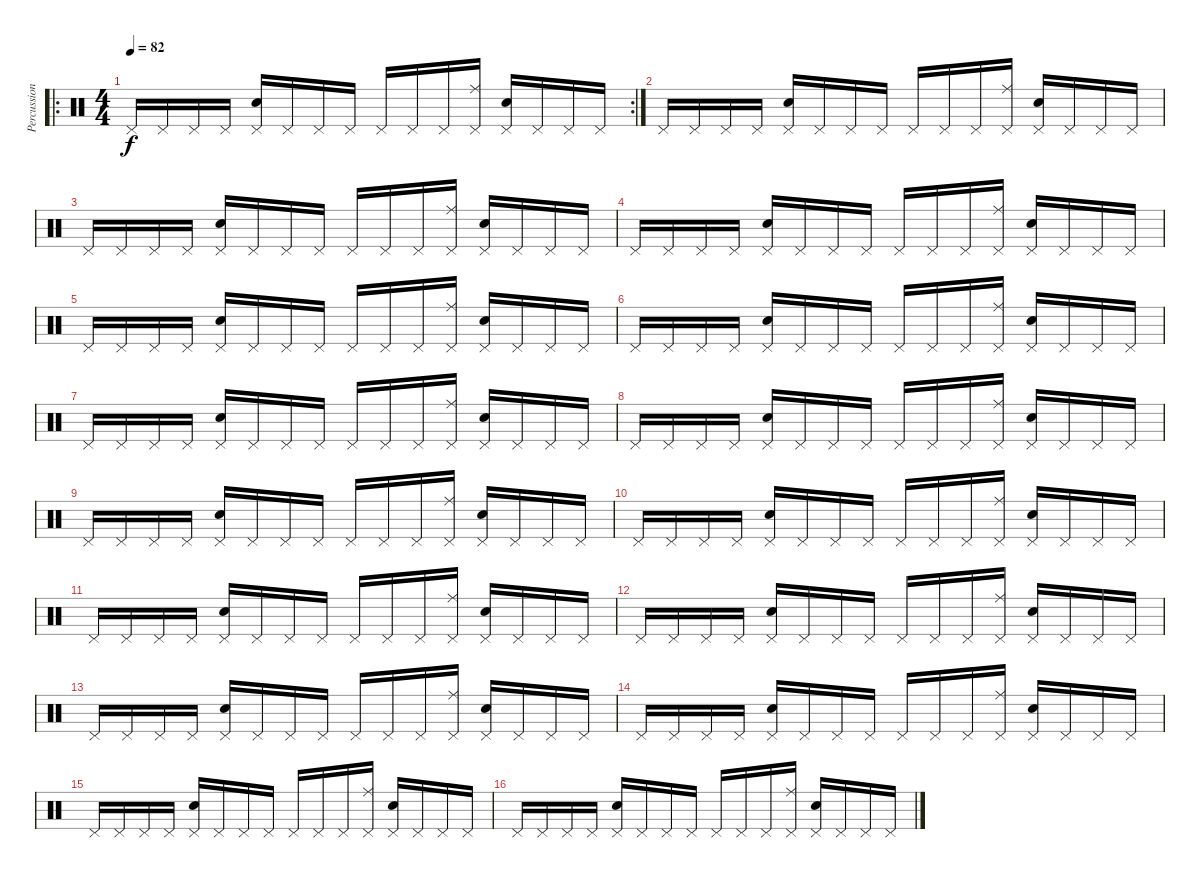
\track ("Percussions" "Percussion") {instrument percussion}
\staff {score}
\articulation defaults
\ro
\rc 2
\ts (4 4)
\tempo 82
\clef neutral
\ks c "Pedal Hi-Hat (hit)".16{dy f} "Pedal Hi-Hat (hit)".16 "Pedal Hi-Hat (hit)".16 "Pedal Hi-Hat (hit)".16
("Pedal Hi-Hat (hit)" "Hand Clap (hit)").16 "Pedal Hi-Hat (hit)".16 "Pedal Hi-Hat (hit)".16 "Pedal Hi-Hat (hit)".16 "Pedal Hi-Hat (hit)".16 "Pedal Hi-Hat (hit)".16 "Pedal Hi-Hat (hit)".16 ("Pedal Hi-Hat (hit)" "Ride (middle)").16 ("Pedal Hi-Hat (hit)" "Hand Clap (hit)").16 "Pedal Hi-Hat (hit)".16 "Pedal Hi-Hat (hit)".16 "Pedal Hi-Hat (hit)".16 |
"Pedal Hi-Hat (hit)".16 "Pedal Hi-Hat (hit)".16 "Pedal Hi-Hat (hit)".16 "Pedal Hi-Hat (hit)".16 ("Pedal Hi-Hat (hit)" "Hand Clap (hit)").16 "Pedal Hi-Hat (hit)".16 "Pedal Hi-Hat (hit)".16 "Pedal Hi-Hat (hit)".16 "Pedal Hi-Hat (hit)".16 "Pedal Hi-Hat (hit)".16 "Pedal Hi-Hat (hit)".16 ("Pedal Hi-Hat (hit)" "Ride (middle)").16 ("Pedal Hi-Hat (hit)" "Hand Clap (hit)").16 "Pedal Hi-Hat (hit)".16 "Pedal Hi-Hat (hit)".16 "Pedal Hi-Hat (hit)".16 |
"Pedal Hi-Hat (hit)".16 "Pedal Hi-Hat (hit)".16 "Pedal Hi-Hat (hit)".16 "Pedal Hi-Hat (hit)".16 ("Pedal Hi-Hat (hit)" "Hand Clap (hit)").16 "Pedal Hi-Hat (hit)".16 "Pedal Hi-Hat (hit)".16 "Pedal Hi-Hat (hit)".16 "Pedal Hi-Hat (hit)".16 "Pedal Hi-Hat (hit)".16 "Pedal Hi-Hat (hit)".16 ("Pedal Hi-Hat (hit)" "Ride (middle)").16 ("Pedal Hi-Hat (hit)" "Hand Clap (hit)").16 "Pedal Hi-Hat (hit)".16 "Pedal Hi-Hat (hit)".16 "Pedal Hi-Hat (hit)".16 |
"Pedal Hi-Hat (hit)".16 "Pedal Hi-Hat (hit)".16 "Pedal Hi-Hat (hit)".16 "Pedal Hi-Hat (hit)".16 ("Pedal Hi-Hat (hit)" "Hand Clap (hit)").16 "Pedal Hi-Hat (hit)".16 "Pedal Hi-Hat (hit)".16 "Pedal Hi-Hat (hit)".16 "Pedal Hi-Hat (hit)".16 "Pedal Hi-Hat (hit)".16 "Pedal Hi-Hat (hit)".16 ("Pedal Hi-Hat (hit)" "Ride (middle)").16 ("Pedal Hi-Hat (hit)" "Hand Clap (hit)").16 "Pedal Hi-Hat (hit)".16 "Pedal Hi-Hat (hit)".16 "Pedal Hi-Hat (hit)".16 |
"Pedal Hi-Hat (hit)".16 "Pedal Hi-Hat (hit)".16 "Pedal Hi-Hat (hit)".16 "Pedal Hi-Hat (hit)".16 ("Pedal Hi-Hat (hit)" "Hand Clap (hit)").16 "Pedal Hi-Hat (hit)".16 "Pedal Hi-Hat (hit)".16 "Pedal Hi-Hat (hit)".16 "Pedal Hi-Hat (hit)".16 "Pedal Hi-Hat (hit)".16 "Pedal Hi-Hat (hit)".16 ("Pedal Hi-Hat (hit)" "Ride (middle)").16 ("Pedal Hi-Hat (hit)" "Hand Clap (hit)").16 "Pedal Hi-Hat (hit)".16 "Pedal Hi-Hat (hit)".16 "Pedal Hi-Hat (hit)".16 |
"Pedal Hi-Hat (hit)".16 "Pedal Hi-Hat (hit)".16 "Pedal Hi-Hat (hit)".16 "Pedal Hi-Hat (hit)".16 ("Pedal Hi-Hat (hit)" "Hand Clap (hit)").16 "Pedal Hi-Hat (hit)".16 "Pedal Hi-Hat (hit)".16 "Pedal Hi-Hat (hit)".16 "Pedal Hi-Hat (hit)".16 "Pedal Hi-Hat (hit)".16 "Pedal Hi-Hat (hit)".16 ("Pedal Hi-Hat (hit)" "Ride (middle)").16 ("Pedal Hi-Hat (hit)" "Hand Clap (hit)").16 "Pedal Hi-Hat (hit)".16 "Pedal Hi-Hat (hit)".16 "Pedal Hi-Hat (hit)".16 |
"Pedal Hi-Hat (hit)".16 "Pedal Hi-Hat (hit)".16 "Pedal Hi-Hat (hit)".16 "Pedal Hi-Hat (hit)".16 ("Pedal Hi-Hat (hit)" "Hand Clap (hit)").16 "Pedal Hi-Hat (hit)".16 "Pedal Hi-Hat (hit)".16 "Pedal Hi-Hat (hit)".16 "Pedal Hi-Hat (hit)".16 "Pedal Hi-Hat (hit)".16 "Pedal Hi-Hat (hit)".16 ("Pedal Hi-Hat (hit)" "Ride (middle)").16 ("Pedal Hi-Hat (hit)" "Hand Clap (hit)").16 "Pedal Hi-Hat (hit)".16 "Pedal Hi-Hat (hit)".16 "Pedal Hi-Hat (hit)".16 |
"Pedal Hi-Hat (hit)".16 "Pedal Hi-Hat (hit)".16 "Pedal Hi-Hat (hit)".16 "Pedal Hi-Hat (hit)".16 ("Pedal Hi-Hat (hit)" "Hand Clap (hit)").16 "Pedal Hi-Hat (hit)".16 "Pedal Hi-Hat (hit)".16 "Pedal Hi-Hat (hit)".16 "Pedal Hi-Hat (hit)".16 "Pedal Hi-Hat (hit)".16 "Pedal Hi-Hat (hit)".16 ("Pedal Hi-Hat (hit)" "Ride (middle)").16 ("Pedal Hi-Hat (hit)" "Hand Clap (hit)").16 "Pedal Hi-Hat (hit)".16 "Pedal Hi-Hat (hit)".16 "Pedal Hi-Hat (hit)".16 |
"Pedal Hi-Hat (hit)".16 "Pedal Hi-Hat (hit)".16 "Pedal Hi-Hat (hit)".16 "Pedal Hi-Hat (hit)".16 ("Pedal Hi-Hat (hit)" "Hand Clap (hit)").16 "Pedal Hi-Hat (hit)".16 "Pedal Hi-Hat (hit)".16 "Pedal Hi-Hat (hit)".16 "Pedal Hi-Hat (hit)".16 "Pedal Hi-Hat (hit)".16 "Pedal Hi-Hat (hit)".16 ("Pedal Hi-Hat (hit)" "Ride (middle)").16 ("Pedal Hi-Hat (hit)" "Hand Clap (hit)").16 "Pedal Hi-Hat (hit)".16 "Pedal Hi-Hat (hit)".16 "Pedal Hi-Hat (hit)".16 |
"Pedal Hi-Hat (hit)".16 "Pedal Hi-Hat (hit)".16 "Pedal Hi-Hat (hit)".16 "Pedal Hi-Hat (hit)".16 ("Pedal Hi-Hat (hit)" "Hand Clap (hit)").16 "Pedal Hi-Hat (hit)".16 "Pedal Hi-Hat (hit)".16 "Pedal Hi-Hat (hit)".16 "Pedal Hi-Hat (hit)".16 "Pedal Hi-Hat (hit)".16 "Pedal Hi-Hat (hit)".16 ("Pedal Hi-Hat (hit)" "Ride (middle)").16 ("Pedal Hi-Hat (hit)" "Hand Clap (hit)").16 "Pedal Hi-Hat (hit)".16 "Pedal Hi-Hat (hit)".16 "Pedal Hi-Hat (hit)".16 |
"Pedal Hi-Hat (hit)".16 "Pedal Hi-Hat (hit)".16 "Pedal Hi-Hat (hit)".16 "Pedal Hi-Hat (hit)".16 ("Pedal Hi-Hat (hit)" "Hand Clap (hit)").16 "Pedal Hi-Hat (hit)".16 "Pedal Hi-Hat (hit)".16 "Pedal Hi-Hat (hit)".16 "Pedal Hi-Hat (hit)".16 "Pedal Hi-Hat (hit)".16 "Pedal Hi-Hat (hit)".16 ("Pedal Hi-Hat (hit)" "Ride (middle)").16 ("Pedal Hi-Hat (hit)" "Hand Clap (hit)").16 "Pedal Hi-Hat (hit)".16 "Pedal Hi-Hat (hit)".16 "Pedal Hi-Hat (hit)".16 |
"Pedal Hi-Hat (hit)".16 "Pedal Hi-Hat (hit)".16 "Pedal Hi-Hat (hit)".16 "Pedal Hi-Hat (hit)".16 ("Pedal Hi-Hat (hit)" "Hand Clap (hit)").16 "Pedal Hi-Hat (hit)".16 "Pedal Hi-Hat (hit)".16 "Pedal Hi-Hat (hit)".16 "Pedal Hi-Hat (hit)".16 "Pedal Hi-Hat (hit)".16 "Pedal Hi-Hat (hit)".16 ("Pedal Hi-Hat (hit)" "Ride (middle)").16 ("Pedal Hi-Hat (hit)" "Hand Clap (hit)").16 "Pedal Hi-Hat (hit)".16 "Pedal Hi-Hat (hit)".16 "Pedal Hi-Hat (hit)".16 |
"Pedal Hi-Hat (hit)".16 "Pedal Hi-Hat (hit)".16 "Pedal Hi-Hat (hit)".16 "Pedal Hi-Hat (hit)".16 ("Pedal Hi-Hat (hit)" "Hand Clap (hit)").16 "Pedal Hi-Hat (hit)".16 "Pedal Hi-Hat (hit)".16 "Pedal Hi-Hat (hit)".16 "Pedal Hi-Hat (hit)".16 "Pedal Hi-Hat (hit)".16 "Pedal Hi-Hat (hit)".16 ("Pedal Hi-Hat (hit)" "Ride (middle)").16 ("Pedal Hi-Hat (hit)" "Hand Clap (hit)").16 "Pedal Hi-Hat (hit)".16 "Pedal Hi-Hat (hit)".16 "Pedal Hi-Hat (hit)".16 |
"Pedal Hi-Hat (hit)".16 "Pedal Hi-Hat (hit)".16 "Pedal Hi-Hat (hit)".16 "Pedal Hi-Hat (hit)".16 ("Pedal Hi-Hat (hit)" "Hand Clap (hit)").16 "Pedal Hi-Hat (hit)".16 "Pedal Hi-Hat (hit)".16 "Pedal Hi-Hat (hit)".16 "Pedal Hi-Hat (hit)".16 "Pedal Hi-Hat (hit)".16 "Pedal Hi-Hat (hit)".16 ("Pedal Hi-Hat (hit)" "Ride (middle)").16 ("Pedal Hi-Hat (hit)" "Hand Clap (hit)").16 "Pedal Hi-Hat (hit)".16 "Pedal Hi-Hat (hit)".16 "Pedal Hi-Hat (hit)".16 |
"Pedal Hi-Hat (hit)".16 "Pedal Hi-Hat (hit)".16 "Pedal Hi-Hat (hit)".16 "Pedal Hi-Hat (hit)".16 ("Pedal Hi-Hat (hit)" "Hand Clap (hit)").16 "Pedal Hi-Hat (hit)".16 "Pedal Hi-Hat (hit)".16 "Pedal Hi-Hat (hit)".16 "Pedal Hi-Hat (hit)".16 "Pedal Hi-Hat (hit)".16 "Pedal Hi-Hat (hit)".16 ("Pedal Hi-Hat (hit)" "Ride (middle)").16 ("Pedal Hi-Hat (hit)" "Hand Clap (hit)").16 "Pedal Hi-Hat (hit)".16 "Pedal Hi-Hat (hit)".16 "Pedal Hi-Hat (hit)".16 |
"Pedal Hi-Hat (hit)".16 "Pedal Hi-Hat (hit)".16 "Pedal Hi-Hat (hit)".16 "Pedal Hi-Hat (hit)".16 ("Pedal Hi-Hat (hit)" "Hand Clap (hit)").16 "Pedal Hi-Hat (hit)".16 "Pedal Hi-Hat (hit)".16 "Pedal Hi-Hat (hit)".16 "Pedal Hi-Hat (hit)".16 "Pedal Hi-Hat (hit)".16 "Pedal Hi-Hat (hit)".16 ("Pedal Hi-Hat (hit)" "Ride (middle)").16 ("Pedal Hi-Hat (hit)" "Hand Clap (hit)").16 "Pedal Hi-Hat (hit)".16 "Pedal Hi-Hat (hit)".16 "Pedal Hi-Hat (hit)".16
